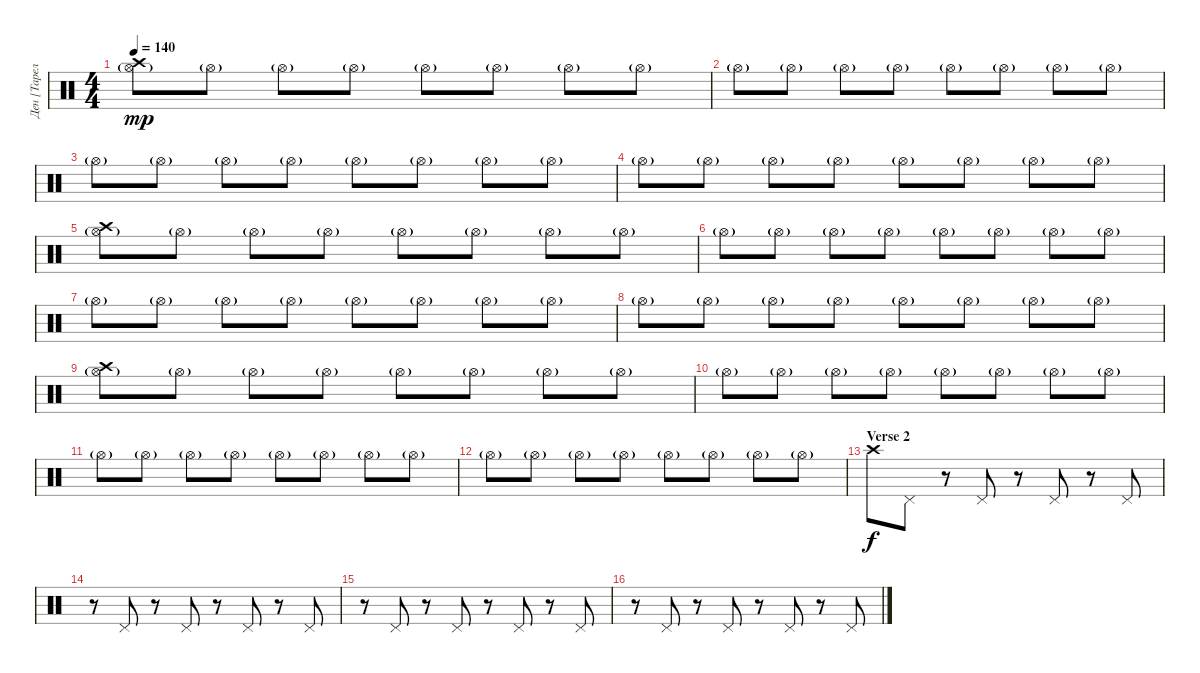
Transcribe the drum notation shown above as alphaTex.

\track ("Ден [Тарелки]" "Ден [Тарел") {instrument percussion}
\staff {score}
\articulation defaults
\ts (4 4)
\tempo 140
\clef neutral
\ks c
("Hi-Hat (open)"{g} "Crash high (hit)").8{dy mp} "Hi-Hat (open)"{g}.8 "Hi-Hat (open)"{g}.8 "Hi-Hat (open)"{g}.8 "Hi-Hat (open)"{g}.8 "Hi-Hat (open)"{g}.8 "Hi-Hat (open)"{g}.8 "Hi-Hat (open)"{g}.8 |
"Hi-Hat (open)"{g}.8 "Hi-Hat (open)"{g}.8 "Hi-Hat (open)"{g}.8 "Hi-Hat (open)"{g}.8 "Hi-Hat (open)"{g}.8 "Hi-Hat (open)"{g}.8 "Hi-Hat (open)"{g}.8 "Hi-Hat (open)"{g}.8 |
"Hi-Hat (open)"{g}.8 "Hi-Hat (open)"{g}.8 "Hi-Hat (open)"{g}.8 "Hi-Hat (open)"{g}.8 "Hi-Hat (open)"{g}.8 "Hi-Hat (open)"{g}.8 "Hi-Hat (open)"{g}.8 "Hi-Hat (open)"{g}.8 |
"Hi-Hat (open)"{g}.8 "Hi-Hat (open)"{g}.8 "Hi-Hat (open)"{g}.8 "Hi-Hat (open)"{g}.8 "Hi-Hat (open)"{g}.8 "Hi-Hat (open)"{g}.8 "Hi-Hat (open)"{g}.8 "Hi-Hat (open)"{g}.8 |
("Hi-Hat (open)"{g} "Crash high (hit)").8 "Hi-Hat (open)"{g}.8 "Hi-Hat (open)"{g}.8 "Hi-Hat (open)"{g}.8 "Hi-Hat (open)"{g}.8 "Hi-Hat (open)"{g}.8 "Hi-Hat (open)"{g}.8 "Hi-Hat (open)"{g}.8 |
"Hi-Hat (open)"{g}.8 "Hi-Hat (open)"{g}.8 "Hi-Hat (open)"{g}.8 "Hi-Hat (open)"{g}.8 "Hi-Hat (open)"{g}.8 "Hi-Hat (open)"{g}.8 "Hi-Hat (open)"{g}.8 "Hi-Hat (open)"{g}.8 |
"Hi-Hat (open)"{g}.8 "Hi-Hat (open)"{g}.8 "Hi-Hat (open)"{g}.8 "Hi-Hat (open)"{g}.8 "Hi-Hat (open)"{g}.8 "Hi-Hat (open)"{g}.8 "Hi-Hat (open)"{g}.8 "Hi-Hat (open)"{g}.8 |
"Hi-Hat (open)"{g}.8 "Hi-Hat (open)"{g}.8 "Hi-Hat (open)"{g}.8 "Hi-Hat (open)"{g}.8 "Hi-Hat (open)"{g}.8 "Hi-Hat (open)"{g}.8 "Hi-Hat (open)"{g}.8 "Hi-Hat (open)"{g}.8 |
("Hi-Hat (open)"{g} "Crash high (hit)").8 "Hi-Hat (open)"{g}.8 "Hi-Hat (open)"{g}.8 "Hi-Hat (open)"{g}.8 "Hi-Hat (open)"{g}.8 "Hi-Hat (open)"{g}.8 "Hi-Hat (open)"{g}.8 "Hi-Hat (open)"{g}.8 |
"Hi-Hat (open)"{g}.8 "Hi-Hat (open)"{g}.8 "Hi-Hat (open)"{g}.8 "Hi-Hat (open)"{g}.8 "Hi-Hat (open)"{g}.8 "Hi-Hat (open)"{g}.8 "Hi-Hat (open)"{g}.8 "Hi-Hat (open)"{g}.8 |
"Hi-Hat (open)"{g}.8 "Hi-Hat (open)"{g}.8 "Hi-Hat (open)"{g}.8 "Hi-Hat (open)"{g}.8 "Hi-Hat (open)"{g}.8 "Hi-Hat (open)"{g}.8 "Hi-Hat (open)"{g}.8 "Hi-Hat (open)"{g}.8 |
"Hi-Hat (open)"{g}.8 "Hi-Hat (open)"{g}.8 "Hi-Hat (open)"{g}.8 "Hi-Hat (open)"{g}.8 "Hi-Hat (open)"{g}.8 "Hi-Hat (open)"{g}.8 "Hi-Hat (open)"{g}.8 "Hi-Hat (open)"{g}.8 |
\section ("" "Verse 2")
"Crash high (hit)".8{dy f} "Pedal Hi-Hat (hit)".8 r.8 "Pedal Hi-Hat (hit)".8 r.8 "Pedal Hi-Hat (hit)".8 r.8 "Pedal Hi-Hat (hit)".8 |
r.8 "Pedal Hi-Hat (hit)".8 r.8 "Pedal Hi-Hat (hit)".8 r.8 "Pedal Hi-Hat (hit)".8 r.8 "Pedal Hi-Hat (hit)".8 |
r.8 "Pedal Hi-Hat (hit)".8 r.8 "Pedal Hi-Hat (hit)".8 r.8 "Pedal Hi-Hat (hit)".8 r.8 "Pedal Hi-Hat (hit)".8 |
r.8 "Pedal Hi-Hat (hit)".8 r.8 "Pedal Hi-Hat (hit)".8 r.8 "Pedal Hi-Hat (hit)".8 r.8 "Pedal Hi-Hat (hit)".8
